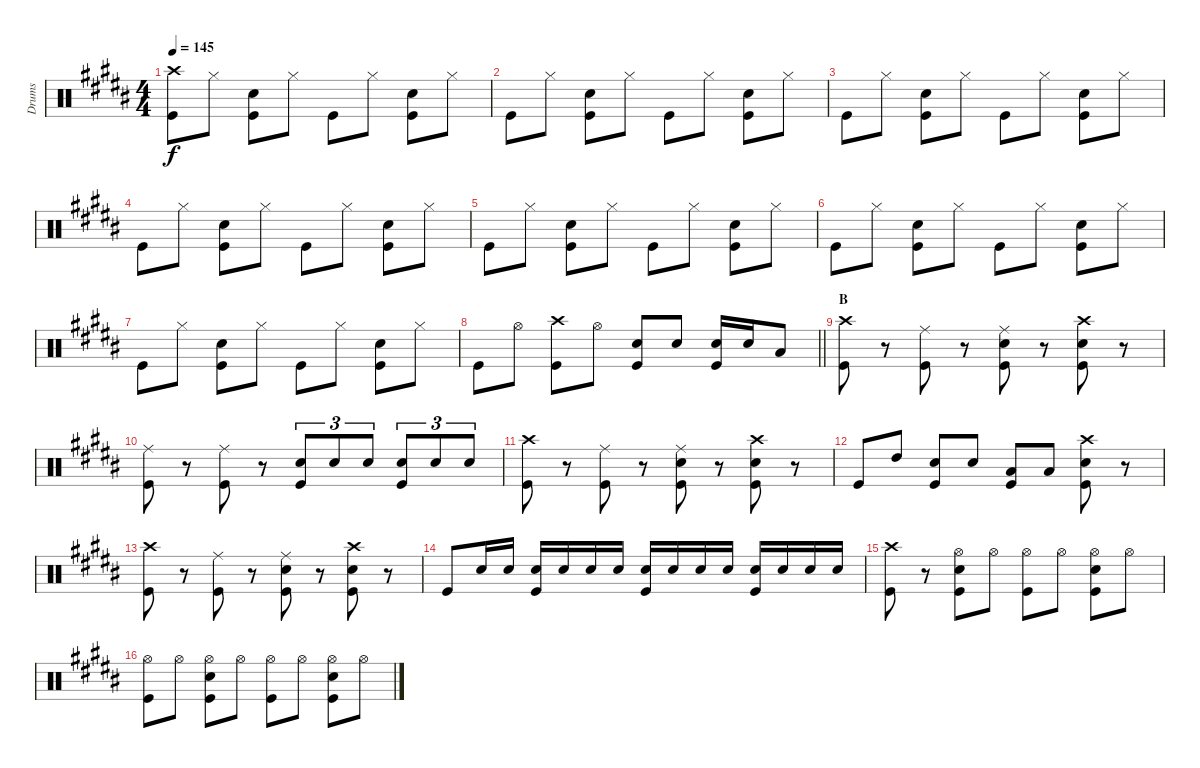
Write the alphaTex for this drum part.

\track ("Drums" "Drums") {instrument percussion}
\staff {score}
\articulation defaults
\ts (4 4)
\tempo 145
\clef neutral
\ks b
("Crash high (hit)" "Kick (hit)").8{dy f} "Hi-Hat (closed)".8 ("Snare (hit) 2" "Kick (hit)").8 "Hi-Hat (closed)".8 "Kick (hit)".8 "Hi-Hat (closed)".8 ("Snare (hit) 2" "Kick (hit)").8 "Hi-Hat (closed)".8 |
"Kick (hit)".8 "Hi-Hat (closed)".8 ("Snare (hit) 2" "Kick (hit)").8 "Hi-Hat (closed)".8 "Kick (hit)".8 "Hi-Hat (closed)".8 ("Snare (hit) 2" "Kick (hit)").8 "Hi-Hat (closed)".8 |
"Kick (hit)".8 "Hi-Hat (closed)".8 ("Snare (hit) 2" "Kick (hit)").8 "Hi-Hat (closed)".8 "Kick (hit)".8 "Hi-Hat (closed)".8 ("Snare (hit) 2" "Kick (hit)").8 "Hi-Hat (closed)".8 |
"Kick (hit)".8 "Hi-Hat (closed)".8 ("Snare (hit) 2" "Kick (hit)").8 "Hi-Hat (closed)".8 "Kick (hit)".8 "Hi-Hat (closed)".8 ("Snare (hit) 2" "Kick (hit)").8 "Hi-Hat (closed)".8 |
"Kick (hit)".8 "Hi-Hat (closed)".8 ("Snare (hit) 2" "Kick (hit)").8 "Hi-Hat (closed)".8 "Kick (hit)".8 "Hi-Hat (closed)".8 ("Snare (hit) 2" "Kick (hit)").8 "Hi-Hat (closed)".8 |
"Kick (hit)".8 "Hi-Hat (closed)".8 ("Snare (hit) 2" "Kick (hit)").8 "Hi-Hat (closed)".8 "Kick (hit)".8 "Hi-Hat (closed)".8 ("Snare (hit) 2" "Kick (hit)").8 "Hi-Hat (closed)".8 |
"Kick (hit)".8 "Hi-Hat (closed)".8 ("Snare (hit) 2" "Kick (hit)").8 "Hi-Hat (closed)".8 "Kick (hit)".8 "Hi-Hat (closed)".8 ("Snare (hit) 2" "Kick (hit)").8 "Hi-Hat (closed)".8 |
\barLineRight lightlight "Kick (hit)".8 "Hi-Hat (open)".8
("Crash high (hit)" "Kick (hit)").8 "Hi-Hat (open)".8 ("Snare (hit) 2" "Kick (hit)").8 "Snare (hit) 2".8 ("Snare (hit) 2" "Kick (hit)").16 "Snare (hit) 2".16 "Low Tom (hit)".8 |
\section ("" "B")
("Crash high (hit)" "Kick (hit)").8 r.8 ("Ride (middle)" "Kick (hit)").8 r.8 ("Ride (middle)" "Snare (hit) 2" "Kick (hit)").8 r.8 ("Crash high (hit)" "Snare (hit) 2" "Kick (hit)").8 r.8 |
("Ride (middle)" "Kick (hit)").8 r.8 ("Ride (middle)" "Kick (hit)").8 r.8 ("Snare (hit) 2" "Kick (hit)").8{tu (3 2)} "Snare (hit) 2".8{tu (3 2)} "Snare (hit) 2".8{tu (3 2)} ("Snare (hit) 2" "Kick (hit)").8{tu (3 2)} "Snare (hit) 2".8{tu (3 2)} "Snare (hit) 2".8{tu (3 2)} |
("Crash high (hit)" "Kick (hit)").8 r.8 ("Ride (middle)" "Kick (hit)").8 r.8 ("Ride (middle)" "Snare (hit) 2" "Kick (hit)").8 r.8 ("Crash high (hit)" "Snare (hit) 2" "Kick (hit)").8 r.8 |
"Kick (hit)".8 "High Tom (hit)".8 ("Snare (hit) 2" "Kick (hit)").8 "Snare (hit) 2".8 ("Low Tom (hit)" "Kick (hit)").8 "Low Tom (hit)".8 ("Crash high (hit)" "Snare (hit) 2" "Kick (hit)").8 r.8 |
("Crash high (hit)" "Kick (hit)").8 r.8 ("Ride (middle)" "Kick (hit)").8 r.8 ("Ride (middle)" "Snare (hit) 2" "Kick (hit)").8 r.8 ("Crash high (hit)" "Snare (hit) 2" "Kick (hit)").8 r.8 |
"Kick (hit)".8 "Snare (hit) 2".16 "Snare (hit) 2".16 ("Snare (hit) 2" "Kick (hit)").16 "Snare (hit) 2".16 "Snare (hit) 2".16 "Snare (hit) 2".16 ("Snare (hit) 2" "Kick (hit)").16 "Snare (hit) 2".16 "Snare (hit) 2".16 "Snare (hit) 2".16 ("Snare (hit) 2" "Kick (hit)").16 "Snare (hit) 2".16 "Snare (hit) 2".16 "Snare (hit) 2".16 |
("Crash high (hit)" "Kick (hit)").8 r.8 ("Hi-Hat (open)" "Snare (hit) 2" "Kick (hit)").8 "Hi-Hat (open)".8 ("Hi-Hat (open)" "Kick (hit)").8 "Hi-Hat (open)".8 ("Hi-Hat (open)" "Snare (hit) 2" "Kick (hit)").8 "Hi-Hat (open)".8 |
("Hi-Hat (open)" "Kick (hit)").8 "Hi-Hat (open)".8 ("Hi-Hat (open)" "Snare (hit) 2" "Kick (hit)").8 "Hi-Hat (open)".8 ("Hi-Hat (open)" "Kick (hit)").8 "Hi-Hat (open)".8 ("Hi-Hat (open)" "Snare (hit) 2" "Kick (hit)").8 "Hi-Hat (open)".8
